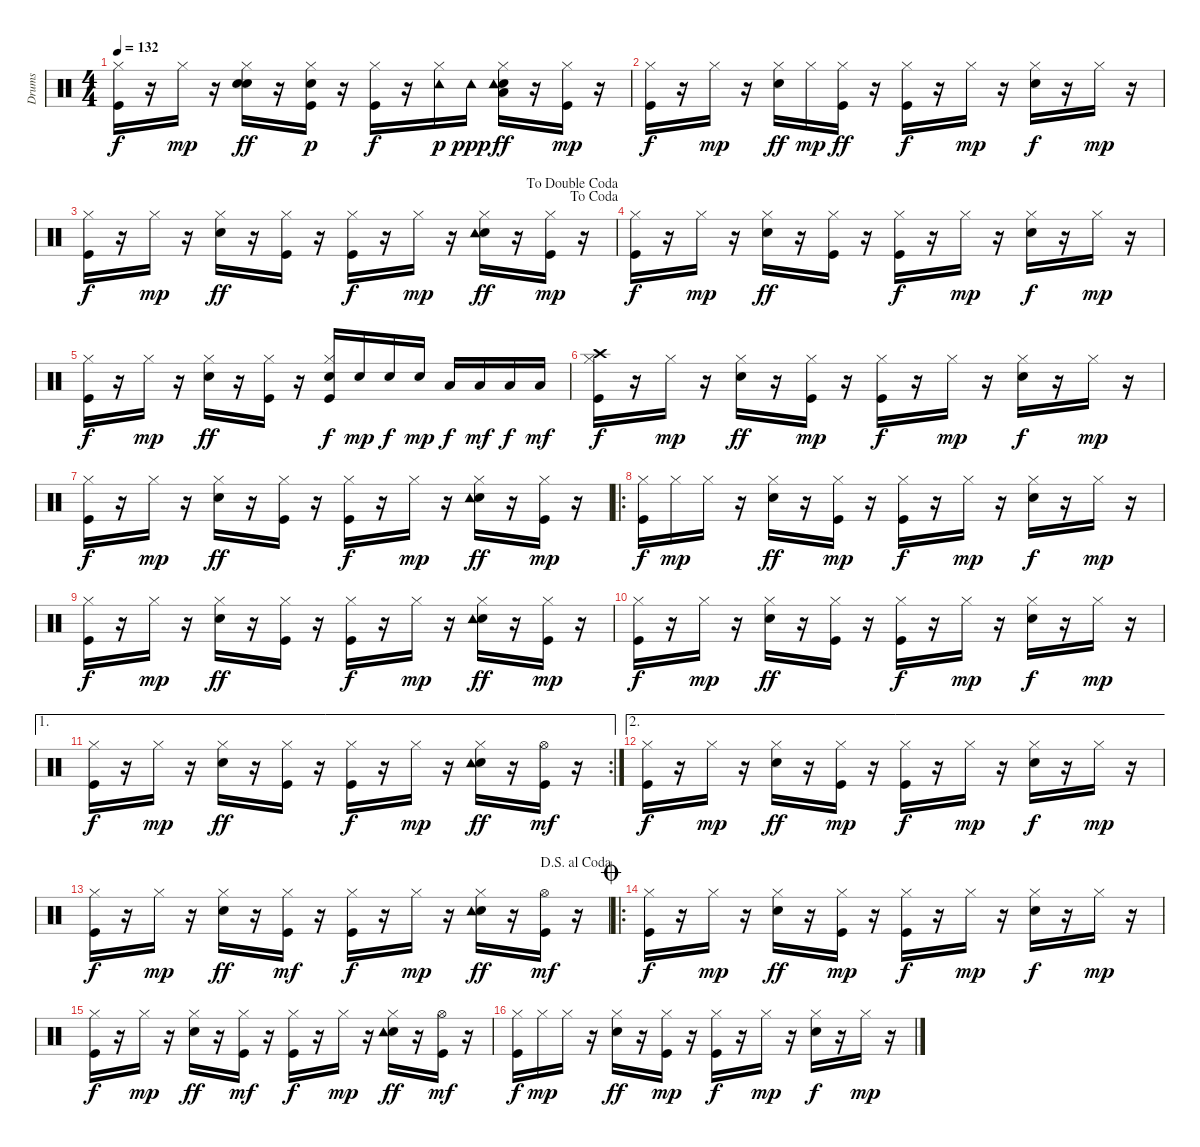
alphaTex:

\track ("Drums" "Drums") {instrument percussion}
\staff {score}
\articulation defaults
\ts (4 4)
\tempo 132
\clef neutral
\ks c
("Kick (hit)" "Hi-Hat (closed)").16{dy f} r.16 "Hi-Hat (closed)".16{dy mp} r.16 ("Snare (hit) 2" "Hi-Hat (closed)" "Hand Clap (hit)").16{dy ff} r.16 ("Kick (hit)" "Hi-Hat (closed)" "Hand Clap (hit)").16{dy p} r.16 ("Kick (hit)" "Hi-Hat (closed)").16{dy f} r.16 ("Hi-Hat (closed)" "Tambourine (hit)").16{dy p} "Tambourine (hit)".16{dy ppp} ("Snare (hit) 2" "Hi-Hat (closed)" "Low Floor Tom (hit)" "Tambourine (hit)").16{dy ff} r.16 ("Kick (hit)" "Hi-Hat (closed)").16{dy mp} r.16 |
("Kick (hit)" "Hi-Hat (closed)").16{dy f} r.16 "Hi-Hat (closed)".16{dy mp} r.16 ("Snare (hit) 2" "Hi-Hat (closed)").16{dy ff} "Hi-Hat (closed)".16{dy mp} ("Kick (hit)" "Hi-Hat (closed)").16{dy ff} r.16 ("Kick (hit)" "Hi-Hat (closed)").16{dy f} r.16 "Hi-Hat (closed)".16{dy mp} r.16 ("Snare (hit) 2" "Hi-Hat (closed)").16{dy f} r.16 "Hi-Hat (closed)".16{dy mp} r.16 |
\jump dacoda
\jump dadoublecoda
("Kick (hit)" "Hi-Hat (closed)").16{dy f} r.16 "Hi-Hat (closed)".16{dy mp} r.16 ("Snare (hit) 2" "Hi-Hat (closed)").16{dy ff} r.16 ("Kick (hit)" "Hi-Hat (closed)").16 r.16 ("Kick (hit)" "Hi-Hat (closed)").16{dy f} r.16 "Hi-Hat (closed)".16{dy mp} r.16 ("Snare (hit) 2" "Hi-Hat (closed)" "Tambourine (hit)").16{dy ff} r.16 ("Kick (hit)" "Hi-Hat (closed)").16{dy mp} r.16 |
("Kick (hit)" "Hi-Hat (closed)").16{dy f} r.16 "Hi-Hat (closed)".16{dy mp} r.16 ("Snare (hit) 2" "Hi-Hat (closed)").16{dy ff} r.16 ("Kick (hit)" "Hi-Hat (closed)").16 r.16 ("Kick (hit)" "Hi-Hat (closed)").16{dy f} r.16 "Hi-Hat (closed)".16{dy mp} r.16 ("Snare (hit) 2" "Hi-Hat (closed)").16{dy f} r.16 "Hi-Hat (closed)".16{dy mp} r.16 |
("Kick (hit)" "Hi-Hat (closed)").16{dy f} r.16 "Hi-Hat (closed)".16{dy mp} r.16 ("Snare (hit) 2" "Hi-Hat (closed)").16{dy ff} r.16 ("Kick (hit)" "Hi-Hat (closed)").16 r.16 ("Kick (hit)" "Snare (hit) 2" "Hi-Hat (closed)").16{dy f} "Snare (hit) 2".16{dy mp} "Snare (hit) 2".16{dy f} "Snare (hit) 2".16{dy mp} "Low Tom (hit)".16{dy f} "Low Tom (hit)".16{dy mf} "Low Tom (hit)".16{dy f} "Low Tom (hit)".16{dy mf} |
("Kick (hit)" "Hi-Hat (closed)" "Crash high (hit)").16{dy f} r.16 "Hi-Hat (closed)".16{dy mp} r.16 ("Snare (hit) 2" "Hi-Hat (closed)").16{dy ff} r.16 ("Kick (hit)" "Hi-Hat (closed)").16{dy mp} r.16 ("Kick (hit)" "Hi-Hat (closed)").16{dy f} r.16 "Hi-Hat (closed)".16{dy mp} r.16 ("Snare (hit) 2" "Hi-Hat (closed)").16{dy f} r.16 "Hi-Hat (closed)".16{dy mp} r.16 |
("Kick (hit)" "Hi-Hat (closed)").16{dy f} r.16 "Hi-Hat (closed)".16{dy mp} r.16 ("Snare (hit) 2" "Hi-Hat (closed)").16{dy ff} r.16 ("Kick (hit)" "Hi-Hat (closed)").16 r.16 ("Kick (hit)" "Hi-Hat (closed)").16{dy f} r.16 "Hi-Hat (closed)".16{dy mp} r.16 ("Snare (hit) 2" "Hi-Hat (closed)" "Tambourine (hit)").16{dy ff} r.16 ("Kick (hit)" "Hi-Hat (closed)").16{dy mp} r.16 |
\ro
("Kick (hit)" "Hi-Hat (closed)").16{dy f} "Hi-Hat (closed)".16{dy mp} "Hi-Hat (closed)".16 r.16 ("Snare (hit) 2" "Hi-Hat (closed)").16{dy ff} r.16 ("Kick (hit)" "Hi-Hat (closed)").16{dy mp} r.16 ("Kick (hit)" "Hi-Hat (closed)").16{dy f} r.16 "Hi-Hat (closed)".16{dy mp} r.16 ("Snare (hit) 2" "Hi-Hat (closed)").16{dy f} r.16 "Hi-Hat (closed)".16{dy mp} r.16 |
("Kick (hit)" "Hi-Hat (closed)").16{dy f} r.16 "Hi-Hat (closed)".16{dy mp} r.16 ("Snare (hit) 2" "Hi-Hat (closed)").16{dy ff} r.16 ("Kick (hit)" "Hi-Hat (closed)").16 r.16 ("Kick (hit)" "Hi-Hat (closed)").16{dy f} r.16 "Hi-Hat (closed)".16{dy mp} r.16 ("Snare (hit) 2" "Hi-Hat (closed)" "Tambourine (hit)").16{dy ff} r.16 ("Kick (hit)" "Hi-Hat (closed)").16{dy mp} r.16 |
("Kick (hit)" "Hi-Hat (closed)").16{dy f} r.16 "Hi-Hat (closed)".16{dy mp} r.16 ("Snare (hit) 2" "Hi-Hat (closed)").16{dy ff} r.16 ("Kick (hit)" "Hi-Hat (closed)").16 r.16 ("Kick (hit)" "Hi-Hat (closed)").16{dy f} r.16 "Hi-Hat (closed)".16{dy mp} r.16 ("Snare (hit) 2" "Hi-Hat (closed)").16{dy f} r.16 "Hi-Hat (closed)".16{dy mp} r.16 |
\ae 1
\rc 2
("Kick (hit)" "Hi-Hat (closed)").16{dy f} r.16 "Hi-Hat (closed)".16{dy mp} r.16 ("Snare (hit) 2" "Hi-Hat (closed)").16{dy ff} r.16 ("Kick (hit)" "Hi-Hat (closed)").16 r.16 ("Kick (hit)" "Hi-Hat (closed)").16{dy f} r.16 "Hi-Hat (closed)".16{dy mp} r.16 ("Snare (hit) 2" "Hi-Hat (closed)" "Tambourine (hit)").16{dy ff} r.16 ("Kick (hit)" "Hi-Hat (open)").16{dy mf} r.16 |
\ae 2
("Kick (hit)" "Hi-Hat (closed)").16{dy f} r.16 "Hi-Hat (closed)".16{dy mp} r.16 ("Snare (hit) 2" "Hi-Hat (closed)").16{dy ff} r.16 ("Kick (hit)" "Hi-Hat (closed)").16{dy mp} r.16 ("Kick (hit)" "Hi-Hat (closed)").16{dy f} r.16 "Hi-Hat (closed)".16{dy mp} r.16 ("Snare (hit) 2" "Hi-Hat (closed)").16{dy f} r.16 "Hi-Hat (closed)".16{dy mp} r.16 |
\jump dalsegnoalcoda
("Kick (hit)" "Hi-Hat (closed)").16{dy f} r.16 "Hi-Hat (closed)".16{dy mp} r.16 ("Snare (hit) 2" "Hi-Hat (closed)").16{dy ff} r.16 ("Kick (hit)" "Hi-Hat (closed)").16{dy mf} r.16 ("Kick (hit)" "Hi-Hat (closed)").16{dy f} r.16 "Hi-Hat (closed)".16{dy mp} r.16 ("Snare (hit) 2" "Hi-Hat (closed)" "Tambourine (hit)").16{dy ff} r.16 ("Kick (hit)" "Hi-Hat (open)").16{dy mf} r.16 |
\ro
\jump coda
("Kick (hit)" "Hi-Hat (closed)").16{dy f} r.16 "Hi-Hat (closed)".16{dy mp} r.16 ("Snare (hit) 2" "Hi-Hat (closed)").16{dy ff} r.16 ("Kick (hit)" "Hi-Hat (closed)").16{dy mp} r.16 ("Kick (hit)" "Hi-Hat (closed)").16{dy f} r.16 "Hi-Hat (closed)".16{dy mp} r.16 ("Snare (hit) 2" "Hi-Hat (closed)").16{dy f} r.16 "Hi-Hat (closed)".16{dy mp} r.16 |
("Kick (hit)" "Hi-Hat (closed)").16{dy f} r.16 "Hi-Hat (closed)".16{dy mp} r.16 ("Snare (hit) 2" "Hi-Hat (closed)").16{dy ff} r.16 ("Kick (hit)" "Hi-Hat (closed)").16{dy mf} r.16 ("Kick (hit)" "Hi-Hat (closed)").16{dy f} r.16 "Hi-Hat (closed)".16{dy mp} r.16 ("Snare (hit) 2" "Hi-Hat (closed)" "Tambourine (hit)").16{dy ff} r.16 ("Kick (hit)" "Hi-Hat (open)").16{dy mf} r.16 |
("Kick (hit)" "Hi-Hat (closed)").16{dy f} "Hi-Hat (closed)".16{dy mp} "Hi-Hat (closed)".16 r.16 ("Snare (hit) 2" "Hi-Hat (closed)").16{dy ff} r.16 ("Kick (hit)" "Hi-Hat (closed)").16{dy mp} r.16 ("Kick (hit)" "Hi-Hat (closed)").16{dy f} r.16 "Hi-Hat (closed)".16{dy mp} r.16 ("Snare (hit) 2" "Hi-Hat (closed)").16{dy f} r.16 "Hi-Hat (closed)".16{dy mp} r.16
